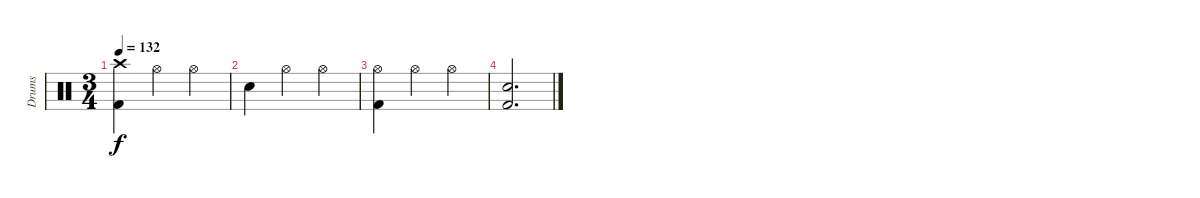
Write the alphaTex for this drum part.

\track ("Drums" "Drums") {instrument percussion}
\staff {score}
\articulation defaults
\ts (3 4)
\tempo 132
\clef neutral
\ks c
("Crash high (hit)" "Kick (hit) 2").4{dy f} "Hi-Hat (open)".4 "Hi-Hat (open)".4 |
"Electric Snare (hit)".4 "Hi-Hat (open)".4 "Hi-Hat (open)".4 |
("Hi-Hat (open)" "Kick (hit) 2").4 "Hi-Hat (open)".4 "Hi-Hat (open)".4 |
("Electric Snare (hit)" "Kick (hit) 2").2{d}
